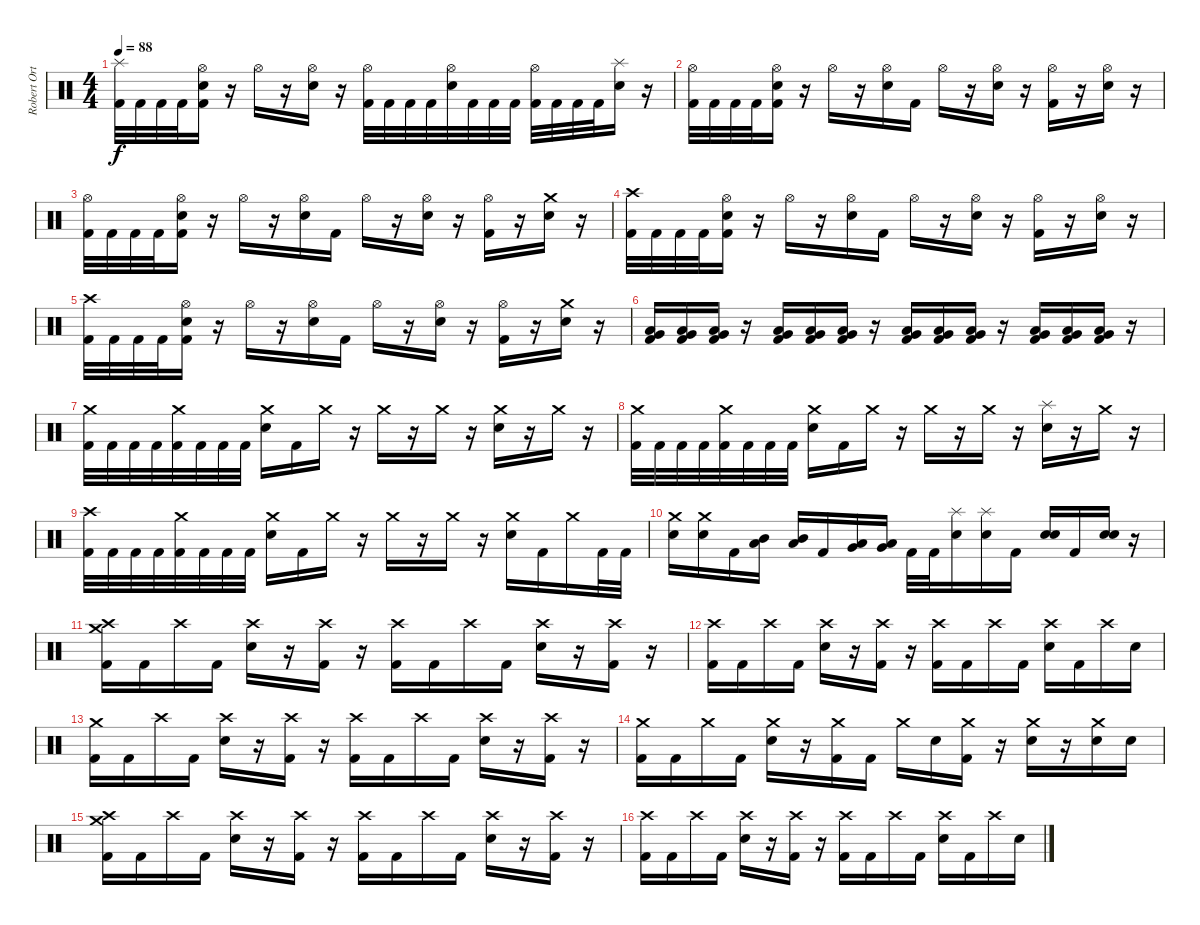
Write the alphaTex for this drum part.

\track ("Robert Ortiz" "Robert Ort") {instrument percussion}
\staff {score}
\articulation defaults
\ts (4 4)
\tempo 88
\clef neutral
\ks c
("Kick (hit) 2" "Splash (hit)").32{dy f} "Kick (hit) 2".32 "Kick (hit) 2".32 "Kick (hit) 2".32 ("Kick (hit) 2" "Electric Snare (hit)" "Hi-Hat (open)").16 r.16 "Hi-Hat (open)".16 r.16 ("Electric Snare (hit)" "Hi-Hat (open)").16 r.16 ("Kick (hit) 2" "Hi-Hat (open)").32 "Kick (hit) 2".32 "Kick (hit) 2".32 "Kick (hit) 2".32 ("Electric Snare (hit)" "Hi-Hat (open)").32 "Kick (hit) 2".32 "Kick (hit) 2".32 "Kick (hit) 2".32 ("Kick (hit) 2" "Hi-Hat (open)").32 "Kick (hit) 2".32 "Kick (hit) 2".32 "Kick (hit) 2".32 ("Electric Snare (hit)" "Splash (hit)").16 r.16 |
("Kick (hit) 2" "Hi-Hat (open)").32 "Kick (hit) 2".32 "Kick (hit) 2".32 "Kick (hit) 2".32 ("Kick (hit) 2" "Electric Snare (hit)" "Hi-Hat (open)").16 r.16 "Hi-Hat (open)".16 r.16 ("Electric Snare (hit)" "Hi-Hat (open)").16 "Kick (hit) 2".16 "Hi-Hat (open)".16 r.16 ("Electric Snare (hit)" "Hi-Hat (open)").16 r.16 ("Kick (hit) 2" "Hi-Hat (open)").16 r.16 ("Electric Snare (hit)" "Hi-Hat (open)").16 r.16 |
("Kick (hit) 2" "Hi-Hat (open)").32 "Kick (hit) 2".32 "Kick (hit) 2".32 "Kick (hit) 2".32 ("Kick (hit) 2" "Electric Snare (hit)" "Hi-Hat (open)").16 r.16 "Hi-Hat (open)".16 r.16 ("Electric Snare (hit)" "Hi-Hat (open)").16 "Kick (hit) 2".16 "Hi-Hat (open)".16 r.16 ("Electric Snare (hit)" "Hi-Hat (open)").16 r.16 ("Kick (hit) 2" "Hi-Hat (open)").16 r.16 ("Electric Snare (hit)" "Crash medium (hit)").16 r.16 |
("Kick (hit) 2" "Crash high (hit)").32 "Kick (hit) 2".32 "Kick (hit) 2".32 "Kick (hit) 2".32 ("Kick (hit) 2" "Electric Snare (hit)" "Hi-Hat (open)").16 r.16 "Hi-Hat (open)".16 r.16 ("Electric Snare (hit)" "Hi-Hat (open)").16 "Kick (hit) 2".16 "Hi-Hat (open)".16 r.16 ("Electric Snare (hit)" "Hi-Hat (open)").16 r.16 ("Kick (hit) 2" "Hi-Hat (open)").16 r.16 ("Electric Snare (hit)" "Hi-Hat (open)").16 r.16 |
("Kick (hit) 2" "Crash high (hit)").32 "Kick (hit) 2".32 "Kick (hit) 2".32 "Kick (hit) 2".32 ("Kick (hit) 2" "Electric Snare (hit)" "Hi-Hat (open)").16 r.16 "Hi-Hat (open)".16 r.16 ("Electric Snare (hit)" "Hi-Hat (open)").16 "Kick (hit) 2".16 "Hi-Hat (open)".16 r.16 ("Electric Snare (hit)" "Hi-Hat (open)").16 r.16 ("Kick (hit) 2" "Hi-Hat (open)").16 r.16 ("Electric Snare (hit)" "Crash medium (hit)").16 r.16 |
("Kick (hit) 2" "Very Low Tom (hit)" "Low Tom (hit)").16 ("Kick (hit) 2" "Very Low Tom (hit)" "Low Tom (hit)").16 ("Kick (hit) 2" "Very Low Tom (hit)" "Low Tom (hit)").16 r.16 ("Kick (hit) 2" "Very Low Tom (hit)" "Low Tom (hit)").16 ("Kick (hit) 2" "Very Low Tom (hit)" "Low Tom (hit)").16 ("Kick (hit) 2" "Very Low Tom (hit)" "Low Tom (hit)").16 r.16 ("Kick (hit) 2" "Very Low Tom (hit)" "Low Tom (hit)").16 ("Kick (hit) 2" "Very Low Tom (hit)" "Low Tom (hit)").16 ("Kick (hit) 2" "Very Low Tom (hit)" "Low Tom (hit)").16 r.16 ("Kick (hit) 2" "Very Low Tom (hit)" "Low Tom (hit)").16 ("Kick (hit) 2" "Very Low Tom (hit)" "Low Tom (hit)").16 ("Kick (hit) 2" "Very Low Tom (hit)" "Low Tom (hit)").16 r.16 |
("Kick (hit) 2" "Crash medium (hit)").32 "Kick (hit) 2".32 "Kick (hit) 2".32 "Kick (hit) 2".32 ("Kick (hit) 2" "Crash medium (hit)").32 "Kick (hit) 2".32 "Kick (hit) 2".32 "Kick (hit) 2".32 ("Electric Snare (hit)" "Crash medium (hit)").16 "Kick (hit) 2".16 "Crash medium (hit)".16 r.16 "Crash medium (hit)".16 r.16 "Crash medium (hit)".16 r.16 ("Electric Snare (hit)" "Crash medium (hit)").16 r.16 "Crash medium (hit)".16 r.16 |
("Kick (hit) 2" "Crash medium (hit)").32 "Kick (hit) 2".32 "Kick (hit) 2".32 "Kick (hit) 2".32 ("Kick (hit) 2" "Crash medium (hit)").32 "Kick (hit) 2".32 "Kick (hit) 2".32 "Kick (hit) 2".32 ("Electric Snare (hit)" "Crash medium (hit)").16 "Kick (hit) 2".16 "Crash medium (hit)".16 r.16 "Crash medium (hit)".16 r.16 "Crash medium (hit)".16 r.16 ("Electric Snare (hit)" "Splash (hit)").16 r.16 "Crash medium (hit)".16 r.16 |
("Kick (hit) 2" "Crash high (hit)").32 "Kick (hit) 2".32 "Kick (hit) 2".32 "Kick (hit) 2".32 ("Kick (hit) 2" "Crash medium (hit)").32 "Kick (hit) 2".32 "Kick (hit) 2".32 "Kick (hit) 2".32 ("Electric Snare (hit)" "Crash medium (hit)").16 "Kick (hit) 2".16 "Crash medium (hit)".16 r.16 "Crash medium (hit)".16 r.16 "Crash medium (hit)".16 r.16 ("Electric Snare (hit)" "Crash medium (hit)").16 "Kick (hit) 2".16 "Crash medium (hit)".16 "Kick (hit) 2".32 "Kick (hit) 2".32 |
("Electric Snare (hit)" "Crash medium (hit)").16 ("Electric Snare (hit)" "Crash medium (hit)").16 "Kick (hit) 2".16 ("Mid Tom (hit)" "Low Tom (hit)").16 ("Mid Tom (hit)" "Low Tom (hit)").16 "Kick (hit) 2".16 ("Low Tom (hit)" "Very Low Tom (hit)").16 ("Low Tom (hit)" "Very Low Tom (hit)").16 "Kick (hit) 2".32 "Kick (hit) 2".32 ("Electric Snare (hit)" "Splash (hit)").16 ("Electric Snare (hit)" "Splash (hit)").16 "Kick (hit) 2".16 ("Electric Snare (hit)" "Electric Snare (hit)").16{bd 240} "Kick (hit) 2".16 ("Electric Snare (hit)" "Electric Snare (hit)").16{bd 240} r.16 |
("Kick (hit) 2" "Crash medium (hit)" "Crash high (hit)").16 "Kick (hit) 2".16 "Crash high (hit)".16 "Kick (hit) 2".16 ("Electric Snare (hit)" "Crash high (hit)").16 r.16 ("Kick (hit) 2" "Crash high (hit)").16 r.16 ("Kick (hit) 2" "Crash high (hit)").16 "Kick (hit) 2".16 "Crash high (hit)".16 "Kick (hit) 2".16 ("Electric Snare (hit)" "Crash high (hit)").16 r.16 ("Kick (hit) 2" "Crash high (hit)").16 r.16 |
("Kick (hit) 2" "Crash high (hit)").16 "Kick (hit) 2".16 "Crash high (hit)".16 "Kick (hit) 2".16 ("Electric Snare (hit)" "Crash high (hit)").16 r.16 ("Kick (hit) 2" "Crash high (hit)").16 r.16 ("Kick (hit) 2" "Crash high (hit)").16 "Kick (hit) 2".16 "Crash high (hit)".16 "Kick (hit) 2".16 ("Electric Snare (hit)" "Crash high (hit)").16 "Kick (hit) 2".16 "Crash high (hit)".16 "Electric Snare (hit)".16 |
("Kick (hit) 2" "Crash medium (hit)").16 "Kick (hit) 2".16 "Crash high (hit)".16 "Kick (hit) 2".16 ("Electric Snare (hit)" "Crash high (hit)").16 r.16 ("Kick (hit) 2" "Crash high (hit)").16 r.16 ("Kick (hit) 2" "Crash high (hit)").16 "Kick (hit) 2".16 "Crash high (hit)".16 "Kick (hit) 2".16 ("Electric Snare (hit)" "Crash high (hit)").16 r.16 ("Kick (hit) 2" "Crash high (hit)").16 r.16 |
("Kick (hit) 2" "Crash medium (hit)").16 "Kick (hit) 2".16 "Crash medium (hit)".16 "Kick (hit) 2".16 ("Electric Snare (hit)" "Crash medium (hit)").16 r.16 ("Kick (hit) 2" "Crash medium (hit)").16 "Kick (hit) 2".16 "Crash medium (hit)".16 "Electric Snare (hit)".16 ("Kick (hit) 2" "Crash medium (hit)").16 r.16 ("Electric Snare (hit)" "Crash medium (hit)").16 r.16 ("Electric Snare (hit)" "Crash medium (hit)").16 "Electric Snare (hit)".16 |
("Kick (hit) 2" "Crash medium (hit)" "Crash high (hit)").16 "Kick (hit) 2".16 "Crash high (hit)".16 "Kick (hit) 2".16 ("Electric Snare (hit)" "Crash high (hit)").16 r.16 ("Kick (hit) 2" "Crash high (hit)").16 r.16 ("Kick (hit) 2" "Crash high (hit)").16 "Kick (hit) 2".16 "Crash high (hit)".16 "Kick (hit) 2".16 ("Electric Snare (hit)" "Crash high (hit)").16 r.16 ("Kick (hit) 2" "Crash high (hit)").16 r.16 |
("Kick (hit) 2" "Crash high (hit)").16 "Kick (hit) 2".16 "Crash high (hit)".16 "Kick (hit) 2".16 ("Electric Snare (hit)" "Crash high (hit)").16 r.16 ("Kick (hit) 2" "Crash high (hit)").16 r.16 ("Kick (hit) 2" "Crash high (hit)").16 "Kick (hit) 2".16 "Crash high (hit)".16 "Kick (hit) 2".16 ("Electric Snare (hit)" "Crash high (hit)").16 "Kick (hit) 2".16 "Crash high (hit)".16 "Electric Snare (hit)".16
